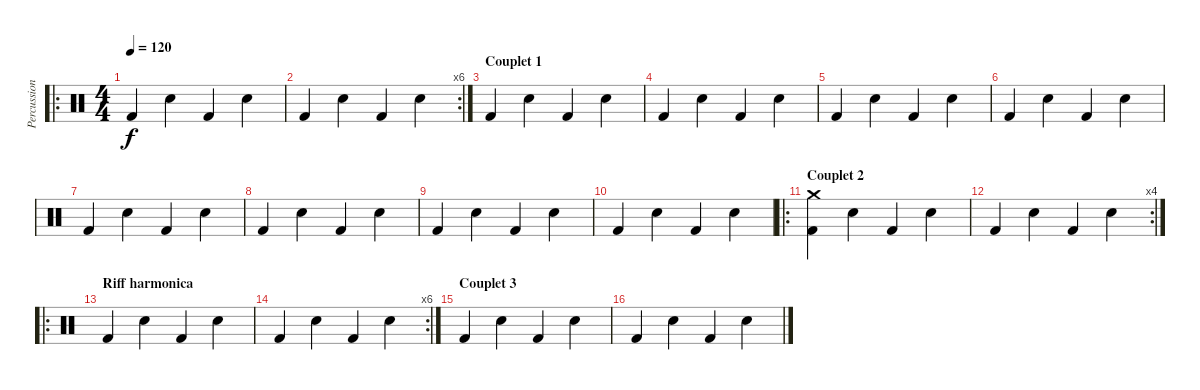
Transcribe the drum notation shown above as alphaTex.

\track ("Percussions" "Percussion") {instrument percussion}
\staff {score}
\articulation defaults
\ro
\ts (4 4)
\tempo 120
\clef neutral
\ks c "Kick (hit) 2".4{dy f} "Electric Snare (hit)".4 "Kick (hit) 2".4 "Electric Snare (hit)".4
|
\rc 6 "Kick (hit) 2".4 "Electric Snare (hit)".4 "Kick (hit) 2".4 "Electric Snare (hit)".4
|
\section ("" "Couplet 1")
"Kick (hit) 2".4 "Electric Snare (hit)".4 "Kick (hit) 2".4 "Electric Snare (hit)".4 |
"Kick (hit) 2".4 "Electric Snare (hit)".4 "Kick (hit) 2".4 "Electric Snare (hit)".4 |
"Kick (hit) 2".4 "Electric Snare (hit)".4 "Kick (hit) 2".4 "Electric Snare (hit)".4 |
"Kick (hit) 2".4 "Electric Snare (hit)".4 "Kick (hit) 2".4 "Electric Snare (hit)".4 |
"Kick (hit) 2".4 "Electric Snare (hit)".4 "Kick (hit) 2".4 "Electric Snare (hit)".4 |
"Kick (hit) 2".4 "Electric Snare (hit)".4 "Kick (hit) 2".4 "Electric Snare (hit)".4 |
"Kick (hit) 2".4 "Electric Snare (hit)".4 "Kick (hit) 2".4 "Electric Snare (hit)".4 |
"Kick (hit) 2".4 "Electric Snare (hit)".4 "Kick (hit) 2".4 "Electric Snare (hit)".4 |
\ro
\section ("" "Couplet 2")
("Crash medium (hit)" "Kick (hit) 2").4 "Electric Snare (hit)".4 "Kick (hit) 2".4 "Electric Snare (hit)".4 |
\rc 4 "Kick (hit) 2".4 "Electric Snare (hit)".4 "Kick (hit) 2".4 "Electric Snare (hit)".4
|
\ro
\section ("" "Riff harmonica")
"Kick (hit) 2".4 "Electric Snare (hit)".4 "Kick (hit) 2".4 "Electric Snare (hit)".4 |
\rc 6 "Kick (hit) 2".4 "Electric Snare (hit)".4 "Kick (hit) 2".4 "Electric Snare (hit)".4
|
\section ("" "Couplet 3")
"Kick (hit) 2".4 "Electric Snare (hit)".4 "Kick (hit) 2".4 "Electric Snare (hit)".4 |
"Kick (hit) 2".4 "Electric Snare (hit)".4 "Kick (hit) 2".4 "Electric Snare (hit)".4
